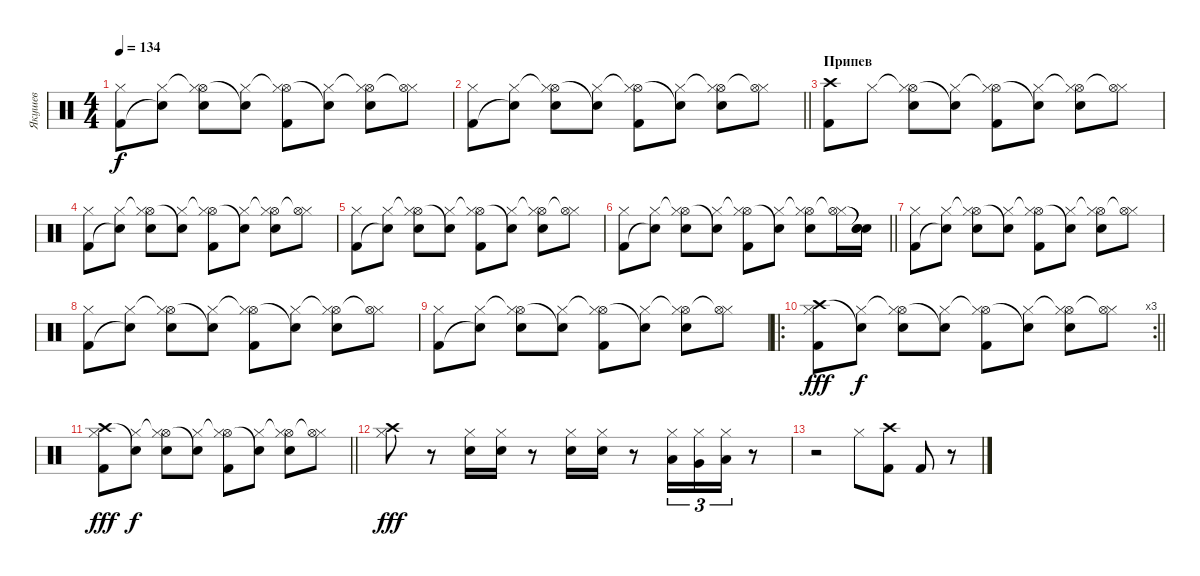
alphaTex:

\track ("Якушев" "Якушев") {instrument percussion}
\staff {score}
\articulation defaults
\ts (4 4)
\tempo 134
\clef neutral
\ks c
("Hi-Hat (closed)" "Kick (hit) 2").8{dy f} ("Hi-Hat (closed)" "Snare (hit)"{t}).8 ("Hi-Hat (open)"{t} "Hi-Hat (closed)" "Snare (hit) 2").8 ("Hi-Hat (closed)" "Snare (hit)"{t}).8 ("Hi-Hat (open)"{t} "Hi-Hat (closed)" "Kick (hit) 2").8 ("Hi-Hat (closed)" "Snare (hit)"{t}).8 ("Hi-Hat (open)"{t} "Hi-Hat (closed)" "Snare (hit) 2").8 ("Hi-Hat (closed)" "Hi-Hat (open)"{t}).8 |
\barLineRight lightlight
("Hi-Hat (closed)" "Kick (hit) 2").8 ("Hi-Hat (closed)" "Snare (hit)"{t}).8 ("Hi-Hat (open)"{t} "Hi-Hat (closed)" "Snare (hit) 2").8 ("Hi-Hat (closed)" "Snare (hit)"{t}).8 ("Hi-Hat (open)"{t} "Hi-Hat (closed)" "Kick (hit) 2").8 ("Hi-Hat (closed)" "Snare (hit)"{t}).8 ("Hi-Hat (open)"{t} "Hi-Hat (closed)" "Snare (hit) 2").8 ("Hi-Hat (closed)" "Hi-Hat (open)"{t}).8 |
\section ("" "Припев")
("Crash high (hit)" "Kick (hit) 2").8 "Hi-Hat (closed)".8 ("Hi-Hat (open)"{t} "Hi-Hat (closed)" "Snare (hit) 2").8 ("Hi-Hat (closed)" "Snare (hit)"{t}).8 ("Hi-Hat (open)"{t} "Hi-Hat (closed)" "Kick (hit) 2").8 ("Hi-Hat (closed)" "Snare (hit)"{t}).8 ("Hi-Hat (open)"{t} "Hi-Hat (closed)" "Snare (hit) 2").8 ("Hi-Hat (closed)" "Hi-Hat (open)"{t}).8 |
("Hi-Hat (closed)" "Kick (hit) 2").8 ("Hi-Hat (closed)" "Snare (hit)"{t}).8 ("Hi-Hat (open)"{t} "Hi-Hat (closed)" "Snare (hit) 2").8 ("Hi-Hat (closed)" "Snare (hit)"{t}).8 ("Hi-Hat (open)"{t} "Hi-Hat (closed)" "Kick (hit) 2").8 ("Hi-Hat (closed)" "Snare (hit)"{t}).8 ("Hi-Hat (open)"{t} "Hi-Hat (closed)" "Snare (hit) 2").8 ("Hi-Hat (closed)" "Hi-Hat (open)"{t}).8 |
("Hi-Hat (closed)" "Kick (hit) 2").8 ("Hi-Hat (closed)" "Snare (hit)"{t}).8 ("Hi-Hat (open)"{t} "Hi-Hat (closed)" "Snare (hit) 2").8 ("Hi-Hat (closed)" "Snare (hit)"{t}).8 ("Hi-Hat (open)"{t} "Hi-Hat (closed)" "Kick (hit) 2").8 ("Hi-Hat (closed)" "Snare (hit)"{t}).8 ("Hi-Hat (open)"{t} "Hi-Hat (closed)" "Snare (hit) 2").8 ("Hi-Hat (closed)" "Hi-Hat (open)"{t}).8 |
\barLineRight lightlight
("Hi-Hat (closed)" "Kick (hit) 2").8 ("Hi-Hat (closed)" "Snare (hit)"{t}).8 ("Hi-Hat (open)"{t} "Hi-Hat (closed)" "Snare (hit) 2").8 ("Hi-Hat (closed)" "Snare (hit)"{t}).8 ("Hi-Hat (open)"{t} "Hi-Hat (closed)" "Kick (hit) 2").8 ("Hi-Hat (closed)" "Snare (hit)"{t}).8 ("Hi-Hat (open)"{t} "Hi-Hat (closed)" "Snare (hit) 2").8 ("Hi-Hat (closed)" "Hi-Hat (open)"{t}).16 ("Snare (hit)"{t} "Snare (hit)"{t} "Snare (hit) 2").16 |
("Hi-Hat (closed)" "Kick (hit) 2").8 ("Hi-Hat (closed)" "Snare (hit)"{t}).8 ("Hi-Hat (open)"{t} "Hi-Hat (closed)" "Snare (hit) 2").8 ("Hi-Hat (closed)" "Snare (hit)"{t}).8 ("Hi-Hat (open)"{t} "Hi-Hat (closed)" "Kick (hit) 2").8 ("Hi-Hat (closed)" "Snare (hit)"{t}).8 ("Hi-Hat (open)"{t} "Hi-Hat (closed)" "Snare (hit) 2").8 ("Hi-Hat (closed)" "Hi-Hat (open)"{t}).8 |
("Hi-Hat (closed)" "Kick (hit) 2").8 ("Hi-Hat (closed)" "Snare (hit)"{t}).8 ("Hi-Hat (open)"{t} "Hi-Hat (closed)" "Snare (hit) 2").8 ("Hi-Hat (closed)" "Snare (hit)"{t}).8 ("Hi-Hat (open)"{t} "Hi-Hat (closed)" "Kick (hit) 2").8 ("Hi-Hat (closed)" "Snare (hit)"{t}).8 ("Hi-Hat (open)"{t} "Hi-Hat (closed)" "Snare (hit) 2").8 ("Hi-Hat (closed)" "Hi-Hat (open)"{t}).8 |
("Hi-Hat (closed)" "Kick (hit) 2").8 ("Hi-Hat (closed)" "Snare (hit)"{t}).8 ("Hi-Hat (open)"{t} "Hi-Hat (closed)" "Snare (hit) 2").8 ("Hi-Hat (closed)" "Snare (hit)"{t}).8 ("Hi-Hat (open)"{t} "Hi-Hat (closed)" "Kick (hit) 2").8 ("Hi-Hat (closed)" "Snare (hit)"{t}).8 ("Hi-Hat (open)"{t} "Hi-Hat (closed)" "Snare (hit) 2").8 ("Hi-Hat (closed)" "Hi-Hat (open)"{t}).8 |
\ro
\rc 3
\barLineRight lightlight
("Hi-Hat (closed)" "Crash high (hit)" "Kick (hit) 2").8{dy fff} ("Hi-Hat (closed)" "Snare (hit)"{t}).8{dy f} ("Hi-Hat (open)"{t} "Hi-Hat (closed)" "Snare (hit) 2").8 ("Hi-Hat (closed)" "Snare (hit)"{t}).8 ("Hi-Hat (open)"{t} "Hi-Hat (closed)" "Kick (hit) 2").8 ("Hi-Hat (closed)" "Snare (hit)"{t}).8 ("Hi-Hat (open)"{t} "Hi-Hat (closed)" "Snare (hit) 2").8 ("Hi-Hat (closed)" "Hi-Hat (open)"{t}).8 |
\barLineRight lightlight
("Hi-Hat (closed)" "Crash high (hit)" "Kick (hit) 2").8{dy fff} ("Hi-Hat (closed)" "Snare (hit)"{t}).8{dy f} ("Hi-Hat (open)"{t} "Hi-Hat (closed)" "Snare (hit) 2").8 ("Hi-Hat (closed)" "Snare (hit)"{t}).8 ("Hi-Hat (open)"{t} "Hi-Hat (closed)" "Kick (hit) 2").8 ("Hi-Hat (closed)" "Snare (hit)"{t}).8 ("Hi-Hat (open)"{t} "Hi-Hat (closed)" "Snare (hit) 2").8 ("Hi-Hat (closed)" "Hi-Hat (open)"{t}).8 |
("Hi-Hat (closed)" "Crash high (hit)").8{dy fff} r.8 ("Hi-Hat (closed)" "Snare (hit) 2").16 ("Hi-Hat (closed)" "Snare (hit) 2").16 r.8 ("Hi-Hat (closed)" "Snare (hit) 2").16 ("Hi-Hat (closed)" "Snare (hit) 2").16 r.8 ("Hi-Hat (closed)" "Low Floor Tom (hit)").16{tu (3 2)} ("Hi-Hat (closed)" "Very Low Tom (hit)").16{tu (3 2)} ("Hi-Hat (closed)" "Low Floor Tom (hit)").16{tu (3 2)} r.8 |
r.2 "Hi-Hat (closed)".8 ("Crash high (hit)" "Kick (hit) 2").8 "Kick (hit) 2".8 r.8
